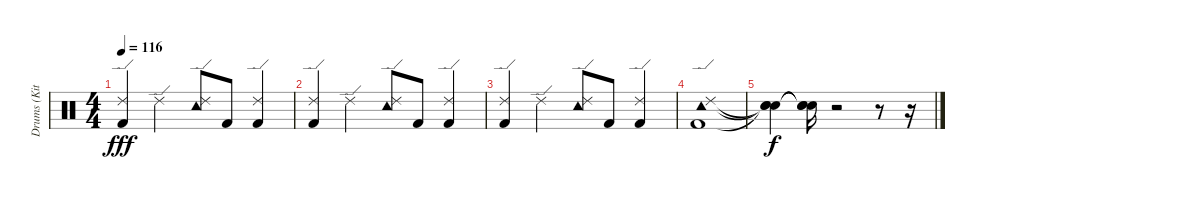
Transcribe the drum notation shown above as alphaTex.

\track ("Drums (Kit)" "Drums (Kit") {instrument percussion}
\staff {score}
\articulation defaults
\ts (4 4)
\tempo 116
\clef neutral
\ks c
("Kick (hit) 2" "Ride (edge) 2").4{dy fff} "Ride (edge) 2".4 ("Ride (edge) 2" "Tambourine (hit)").8 "Kick (hit) 2".8 ("Ride (edge) 2" "Kick (hit) 2").4 |
("Ride (edge) 2" "Kick (hit) 2").4 "Ride (edge) 2".4 ("Ride (edge) 2" "Tambourine (hit)").8 "Kick (hit) 2".8 ("Ride (edge) 2" "Kick (hit) 2").4 |
("Ride (edge) 2" "Kick (hit) 2").4 "Ride (edge) 2".4 ("Ride (edge) 2" "Tambourine (hit)").8 "Kick (hit) 2".8 ("Ride (edge) 2" "Kick (hit) 2").4 |
("Ride (edge) 2" "Tambourine (hit)" "Kick (hit) 2").1 |
("Snare (hit)"{t} "Snare (hit)"{t} "Snare (hit)"{t}).4{dy f} ("Snare (hit)"{t} "Snare (hit)"{t} "Snare (hit)"{t}).16 r.2 r.8 r.16
